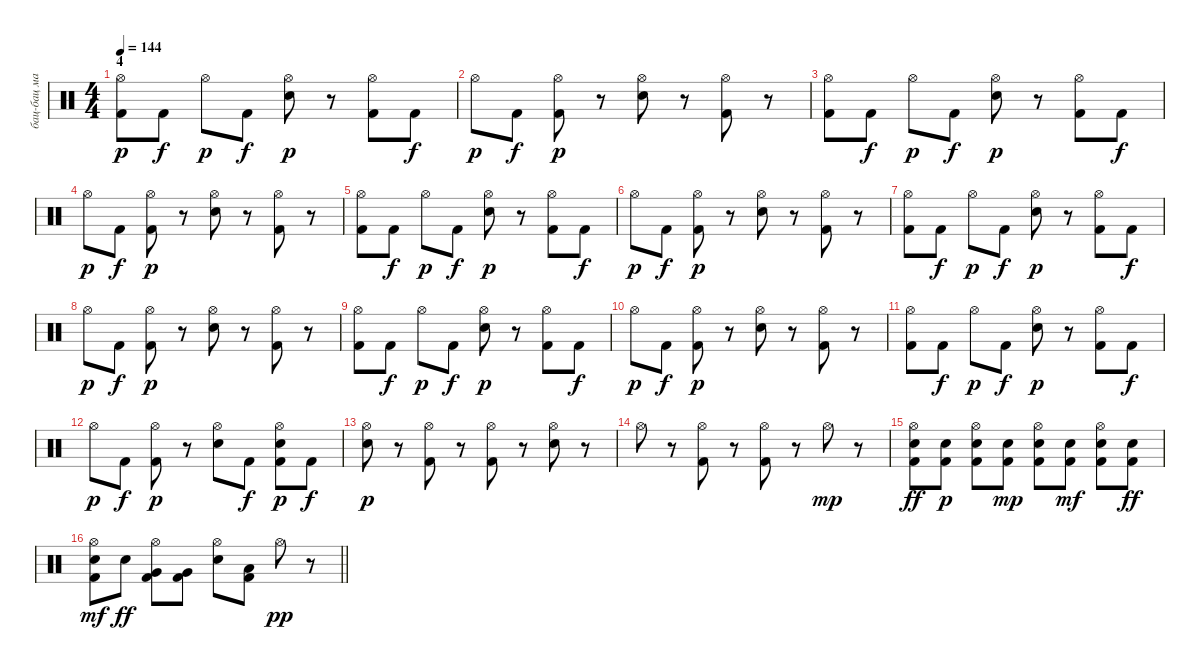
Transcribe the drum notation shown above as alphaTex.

\track ("бац-бац машина" "бац-бац ма") {instrument percussion}
\staff {score}
\articulation defaults
\ts (4 4)
\section ("" "4")
\tempo 144
\clef neutral
\ks c
("Hi-Hat (open)" "Kick (hit) 2").8{dy p} "Kick (hit) 2".8{dy f} "Hi-Hat (open)".8{dy p} "Kick (hit) 2".8{dy f} ("Hi-Hat (open)" "Snare (hit) 2").8{dy p} r.8 ("Hi-Hat (open)" "Kick (hit) 2").8 "Kick (hit) 2".8{dy f} |
"Hi-Hat (open)".8{dy p} "Kick (hit) 2".8{dy f} ("Hi-Hat (open)" "Kick (hit) 2").8{dy p} r.8 ("Hi-Hat (open)" "Snare (hit) 2").8 r.8 ("Hi-Hat (open)" "Kick (hit) 2").8 r.8 |
("Hi-Hat (open)" "Kick (hit) 2").8 "Kick (hit) 2".8{dy f} "Hi-Hat (open)".8{dy p} "Kick (hit) 2".8{dy f} ("Hi-Hat (open)" "Snare (hit) 2").8{dy p} r.8 ("Hi-Hat (open)" "Kick (hit) 2").8 "Kick (hit) 2".8{dy f} |
"Hi-Hat (open)".8{dy p} "Kick (hit) 2".8{dy f} ("Hi-Hat (open)" "Kick (hit) 2").8{dy p} r.8 ("Hi-Hat (open)" "Snare (hit) 2").8 r.8 ("Hi-Hat (open)" "Kick (hit) 2").8 r.8 |
("Hi-Hat (open)" "Kick (hit) 2").8 "Kick (hit) 2".8{dy f} "Hi-Hat (open)".8{dy p} "Kick (hit) 2".8{dy f} ("Hi-Hat (open)" "Snare (hit) 2").8{dy p} r.8 ("Hi-Hat (open)" "Kick (hit) 2").8 "Kick (hit) 2".8{dy f} |
"Hi-Hat (open)".8{dy p} "Kick (hit) 2".8{dy f} ("Hi-Hat (open)" "Kick (hit) 2").8{dy p} r.8 ("Hi-Hat (open)" "Snare (hit) 2").8 r.8 ("Hi-Hat (open)" "Kick (hit) 2").8 r.8 |
("Hi-Hat (open)" "Kick (hit) 2").8 "Kick (hit) 2".8{dy f} "Hi-Hat (open)".8{dy p} "Kick (hit) 2".8{dy f} ("Hi-Hat (open)" "Snare (hit) 2").8{dy p} r.8 ("Hi-Hat (open)" "Kick (hit) 2").8 "Kick (hit) 2".8{dy f} |
"Hi-Hat (open)".8{dy p} "Kick (hit) 2".8{dy f} ("Hi-Hat (open)" "Kick (hit) 2").8{dy p} r.8 ("Hi-Hat (open)" "Snare (hit) 2").8 r.8 ("Hi-Hat (open)" "Kick (hit) 2").8 r.8 |
("Hi-Hat (open)" "Kick (hit) 2").8 "Kick (hit) 2".8{dy f} "Hi-Hat (open)".8{dy p} "Kick (hit) 2".8{dy f} ("Hi-Hat (open)" "Snare (hit) 2").8{dy p} r.8 ("Hi-Hat (open)" "Kick (hit) 2").8 "Kick (hit) 2".8{dy f} |
"Hi-Hat (open)".8{dy p} "Kick (hit) 2".8{dy f} ("Hi-Hat (open)" "Kick (hit) 2").8{dy p} r.8 ("Hi-Hat (open)" "Snare (hit) 2").8 r.8 ("Hi-Hat (open)" "Kick (hit) 2").8 r.8 |
("Hi-Hat (open)" "Kick (hit) 2").8 "Kick (hit) 2".8{dy f} "Hi-Hat (open)".8{dy p} "Kick (hit) 2".8{dy f} ("Hi-Hat (open)" "Snare (hit) 2").8{dy p} r.8 ("Hi-Hat (open)" "Kick (hit) 2").8 "Kick (hit) 2".8{dy f} |
"Hi-Hat (open)".8{dy p} "Kick (hit) 2".8{dy f} ("Hi-Hat (open)" "Kick (hit) 2").8{dy p} r.8 ("Hi-Hat (open)" "Snare (hit) 2").8 "Kick (hit) 2".8{dy f} ("Hi-Hat (open)" "Snare (hit) 2" "Kick (hit) 2").8{dy p} "Kick (hit) 2".8{dy f} |
("Hi-Hat (open)" "Snare (hit) 2").8{dy p} r.8 ("Hi-Hat (open)" "Kick (hit) 2").8 r.8 ("Hi-Hat (open)" "Kick (hit) 2").8 r.8 ("Hi-Hat (open)" "Snare (hit) 2").8 r.8 |
"Hi-Hat (open)".8 r.8 ("Hi-Hat (open)" "Kick (hit) 2").8 r.8 ("Hi-Hat (open)" "Kick (hit) 2").8 r.8 "Hi-Hat (open)".8{dy mp} r.8 |
("Hi-Hat (open)" "Snare (hit) 2" "Kick (hit) 2").8{dy ff} ("Electric Snare (hit)" "Kick (hit) 2").8{dy p} ("Hi-Hat (open)" "Electric Snare (hit)" "Kick (hit) 2").8 ("Electric Snare (hit)" "Kick (hit) 2").8{dy mp} ("Hi-Hat (open)" "Electric Snare (hit)" "Kick (hit) 2").8 ("Electric Snare (hit)" "Kick (hit) 2").8{dy mf} ("Hi-Hat (open)" "Electric Snare (hit)" "Kick (hit) 2").8 ("Electric Snare (hit)" "Kick (hit) 2").8{dy ff} |
\barLineRight lightlight
("Hi-Hat (open)" "Electric Snare (hit)" "Kick (hit) 2").8{dy mf} "Snare (hit) 2".8{dy ff} ("Hi-Hat (open)" "Very Low Tom (hit)" "Kick (hit) 2").8 ("Very Low Tom (hit)" "Kick (hit) 2").8 ("Hi-Hat (open)" "Snare (hit) 2").8 ("Low Tom (hit)" "Kick (hit) 2").8 "Hi-Hat (open)".8{dy pp} r.8
